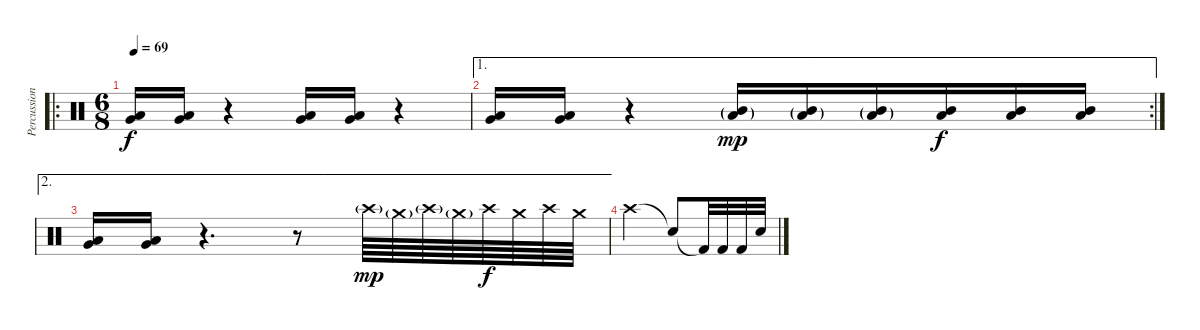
\track ("Percussion" "Percussion") {instrument percussion}
\staff {score}
\articulation defaults
\ro
\ts (6 8)
\tempo 69
\clef neutral
\ks c
("Very Low Tom (hit)" "Low Floor Tom (hit)").16{dy f} ("Very Low Tom (hit)" "Low Floor Tom (hit)").16 r.4 ("Very Low Tom (hit)" "Low Floor Tom (hit)").16 ("Very Low Tom (hit)" "Low Floor Tom (hit)").16 r.4 |
\ae 1
\rc 2
("Very Low Tom (hit)" "Low Floor Tom (hit)").16 ("Very Low Tom (hit)" "Low Floor Tom (hit)").16 r.4 ("Mid Tom (hit)"{g} "Low Floor Tom (hit)"{g}).16{dy mp} ("Mid Tom (hit)"{g} "Low Floor Tom (hit)"{g}).16 ("Mid Tom (hit)"{g} "Low Floor Tom (hit)"{g}).16 ("Mid Tom (hit)" "Low Floor Tom (hit)").16{dy f} ("Mid Tom (hit)" "Low Floor Tom (hit)").16 ("Mid Tom (hit)" "Low Floor Tom (hit)").16 |
\ae 2
("Very Low Tom (hit)" "Low Floor Tom (hit)").16 ("Very Low Tom (hit)" "Low Floor Tom (hit)").16 r.4{d} r.8 "Crash high (hit)"{g}.64{dy mp} "Crash medium (hit)"{g}.64 "Crash high (hit)"{g}.64 "Crash medium (hit)"{g}.64 "Crash high (hit)".64{dy f} "Crash medium (hit)".64 "Crash high (hit)".64 "Crash medium (hit)".64 |
"Crash high (hit)".2 "Snare (hit)"{t}.8 "Kick (hit) 2"{t}.32 "Kick (hit) 2".32 "Kick (hit) 2".32 "Snare (hit) 2".32
